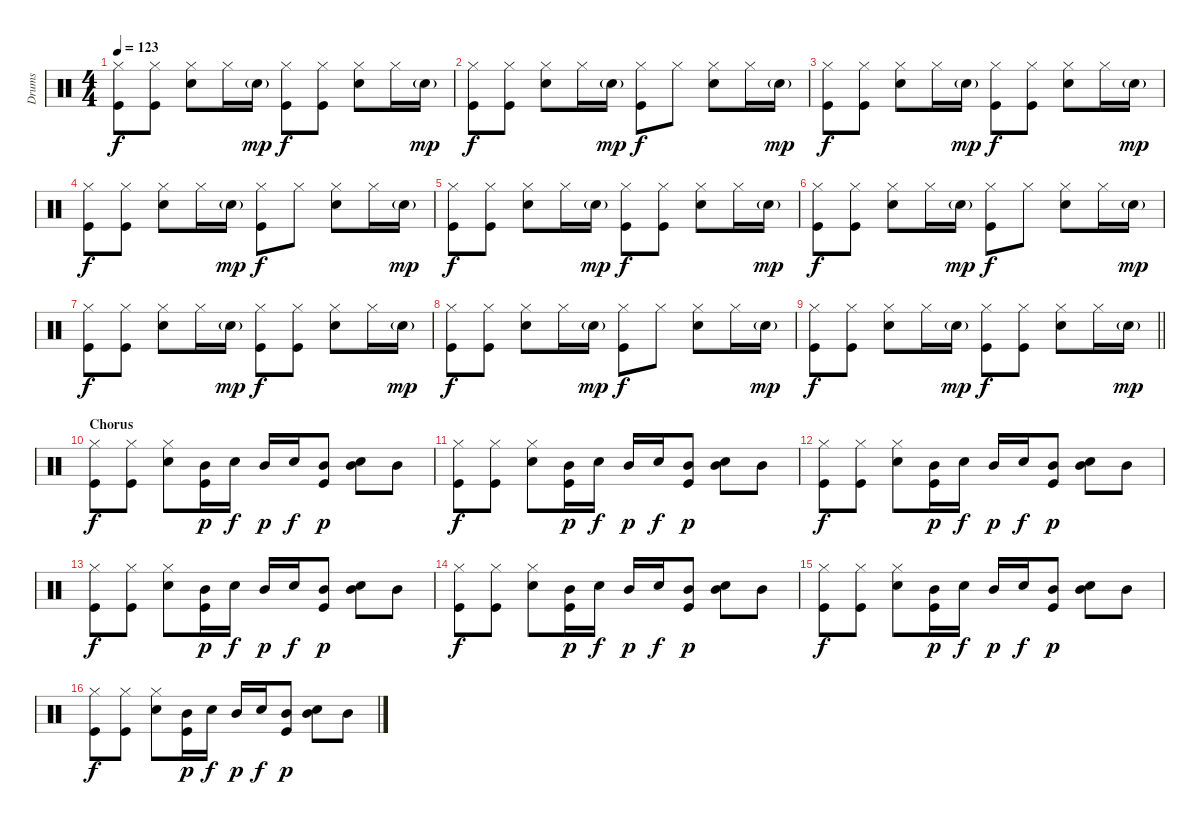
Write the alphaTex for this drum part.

\track ("Drums" "Drums") {instrument percussion}
\staff {score}
\articulation defaults
\ts (4 4)
\tempo 123
\clef neutral
\ks c
("Hi-Hat (closed)" "Kick (hit)").8{dy f} ("Hi-Hat (closed)" "Kick (hit)").8 ("Hi-Hat (closed)" "Snare (hit) 2").8 "Hi-Hat (closed)".16 "Snare (hit) 2"{g}.16{dy mp} ("Hi-Hat (closed)" "Kick (hit)").8{dy f} ("Hi-Hat (closed)" "Kick (hit)").8 ("Hi-Hat (closed)" "Snare (hit) 2").8 "Hi-Hat (closed)".16 "Snare (hit) 2"{g}.16{dy mp} |
("Hi-Hat (closed)" "Kick (hit)").8{dy f} ("Hi-Hat (closed)" "Kick (hit)").8 ("Hi-Hat (closed)" "Snare (hit) 2").8 "Hi-Hat (closed)".16 "Snare (hit) 2"{g}.16{dy mp} ("Hi-Hat (closed)" "Kick (hit)").8{dy f} "Hi-Hat (closed)".8 ("Hi-Hat (closed)" "Snare (hit) 2").8 "Hi-Hat (closed)".16 "Snare (hit) 2"{g}.16{dy mp} |
("Hi-Hat (closed)" "Kick (hit)").8{dy f} ("Hi-Hat (closed)" "Kick (hit)").8 ("Hi-Hat (closed)" "Snare (hit) 2").8 "Hi-Hat (closed)".16 "Snare (hit) 2"{g}.16{dy mp} ("Hi-Hat (closed)" "Kick (hit)").8{dy f} ("Hi-Hat (closed)" "Kick (hit)").8 ("Hi-Hat (closed)" "Snare (hit) 2").8 "Hi-Hat (closed)".16 "Snare (hit) 2"{g}.16{dy mp} |
("Hi-Hat (closed)" "Kick (hit)").8{dy f} ("Hi-Hat (closed)" "Kick (hit)").8 ("Hi-Hat (closed)" "Snare (hit) 2").8 "Hi-Hat (closed)".16 "Snare (hit) 2"{g}.16{dy mp} ("Hi-Hat (closed)" "Kick (hit)").8{dy f} "Hi-Hat (closed)".8 ("Hi-Hat (closed)" "Snare (hit) 2").8 "Hi-Hat (closed)".16 "Snare (hit) 2"{g}.16{dy mp} |
("Hi-Hat (closed)" "Kick (hit)").8{dy f} ("Hi-Hat (closed)" "Kick (hit)").8 ("Hi-Hat (closed)" "Snare (hit) 2").8 "Hi-Hat (closed)".16 "Snare (hit) 2"{g}.16{dy mp} ("Hi-Hat (closed)" "Kick (hit)").8{dy f} ("Hi-Hat (closed)" "Kick (hit)").8 ("Hi-Hat (closed)" "Snare (hit) 2").8 "Hi-Hat (closed)".16 "Snare (hit) 2"{g}.16{dy mp} |
("Hi-Hat (closed)" "Kick (hit)").8{dy f} ("Hi-Hat (closed)" "Kick (hit)").8 ("Hi-Hat (closed)" "Snare (hit) 2").8 "Hi-Hat (closed)".16 "Snare (hit) 2"{g}.16{dy mp} ("Hi-Hat (closed)" "Kick (hit)").8{dy f} "Hi-Hat (closed)".8 ("Hi-Hat (closed)" "Snare (hit) 2").8 "Hi-Hat (closed)".16 "Snare (hit) 2"{g}.16{dy mp} |
("Hi-Hat (closed)" "Kick (hit)").8{dy f} ("Hi-Hat (closed)" "Kick (hit)").8 ("Hi-Hat (closed)" "Snare (hit) 2").8 "Hi-Hat (closed)".16 "Snare (hit) 2"{g}.16{dy mp} ("Hi-Hat (closed)" "Kick (hit)").8{dy f} ("Hi-Hat (closed)" "Kick (hit)").8 ("Hi-Hat (closed)" "Snare (hit) 2").8 "Hi-Hat (closed)".16 "Snare (hit) 2"{g}.16{dy mp} |
("Hi-Hat (closed)" "Kick (hit)").8{dy f} ("Hi-Hat (closed)" "Kick (hit)").8 ("Hi-Hat (closed)" "Snare (hit) 2").8 "Hi-Hat (closed)".16 "Snare (hit) 2"{g}.16{dy mp} ("Hi-Hat (closed)" "Kick (hit)").8{dy f} "Hi-Hat (closed)".8 ("Hi-Hat (closed)" "Snare (hit) 2").8 "Hi-Hat (closed)".16 "Snare (hit) 2"{g}.16{dy mp} |
\barLineRight lightlight
("Hi-Hat (closed)" "Kick (hit)").8{dy f} ("Hi-Hat (closed)" "Kick (hit)").8 ("Hi-Hat (closed)" "Snare (hit) 2").8 "Hi-Hat (closed)".16 "Snare (hit) 2"{g}.16{dy mp} ("Hi-Hat (closed)" "Kick (hit)").8{dy f} ("Hi-Hat (closed)" "Kick (hit)").8 ("Hi-Hat (closed)" "Snare (hit) 2").8 "Hi-Hat (closed)".16 "Snare (hit) 2"{g}.16{dy mp} |
\section ("" "Chorus")
("Hi-Hat (closed)" "Kick (hit)").8{dy f} ("Hi-Hat (closed)" "Kick (hit)").8 ("Hi-Hat (closed)" "Snare (hit) 2").8 ("Mid Tom (hit)" "Kick (hit)").16{dy p} "Snare (hit) 2".16{dy f} "Mid Tom (hit)".16{dy p} "Snare (hit) 2".16{dy f} ("Mid Tom (hit)" "Kick (hit)").8{dy p} ("Snare (hit) 2" "Mid Tom (hit)").8 "Mid Tom (hit)".8 |
("Hi-Hat (closed)" "Kick (hit)").8{dy f} ("Hi-Hat (closed)" "Kick (hit)").8 ("Hi-Hat (closed)" "Snare (hit) 2").8 ("Mid Tom (hit)" "Kick (hit)").16{dy p} "Snare (hit) 2".16{dy f} "Mid Tom (hit)".16{dy p} "Snare (hit) 2".16{dy f} ("Mid Tom (hit)" "Kick (hit)").8{dy p} ("Snare (hit) 2" "Mid Tom (hit)").8 "Mid Tom (hit)".8 |
("Hi-Hat (closed)" "Kick (hit)").8{dy f} ("Hi-Hat (closed)" "Kick (hit)").8 ("Hi-Hat (closed)" "Snare (hit) 2").8 ("Mid Tom (hit)" "Kick (hit)").16{dy p} "Snare (hit) 2".16{dy f} "Mid Tom (hit)".16{dy p} "Snare (hit) 2".16{dy f} ("Mid Tom (hit)" "Kick (hit)").8{dy p} ("Snare (hit) 2" "Mid Tom (hit)").8 "Mid Tom (hit)".8 |
("Hi-Hat (closed)" "Kick (hit)").8{dy f} ("Hi-Hat (closed)" "Kick (hit)").8 ("Hi-Hat (closed)" "Snare (hit) 2").8 ("Mid Tom (hit)" "Kick (hit)").16{dy p} "Snare (hit) 2".16{dy f} "Mid Tom (hit)".16{dy p} "Snare (hit) 2".16{dy f} ("Mid Tom (hit)" "Kick (hit)").8{dy p} ("Snare (hit) 2" "Mid Tom (hit)").8 "Mid Tom (hit)".8 |
("Hi-Hat (closed)" "Kick (hit)").8{dy f} ("Hi-Hat (closed)" "Kick (hit)").8 ("Hi-Hat (closed)" "Snare (hit) 2").8 ("Mid Tom (hit)" "Kick (hit)").16{dy p} "Snare (hit) 2".16{dy f} "Mid Tom (hit)".16{dy p} "Snare (hit) 2".16{dy f} ("Mid Tom (hit)" "Kick (hit)").8{dy p} ("Snare (hit) 2" "Mid Tom (hit)").8 "Mid Tom (hit)".8 |
("Hi-Hat (closed)" "Kick (hit)").8{dy f} ("Hi-Hat (closed)" "Kick (hit)").8 ("Hi-Hat (closed)" "Snare (hit) 2").8 ("Mid Tom (hit)" "Kick (hit)").16{dy p} "Snare (hit) 2".16{dy f} "Mid Tom (hit)".16{dy p} "Snare (hit) 2".16{dy f} ("Mid Tom (hit)" "Kick (hit)").8{dy p} ("Snare (hit) 2" "Mid Tom (hit)").8 "Mid Tom (hit)".8 |
("Hi-Hat (closed)" "Kick (hit)").8{dy f} ("Hi-Hat (closed)" "Kick (hit)").8 ("Hi-Hat (closed)" "Snare (hit) 2").8 ("Mid Tom (hit)" "Kick (hit)").16{dy p} "Snare (hit) 2".16{dy f} "Mid Tom (hit)".16{dy p} "Snare (hit) 2".16{dy f} ("Mid Tom (hit)" "Kick (hit)").8{dy p} ("Snare (hit) 2" "Mid Tom (hit)").8 "Mid Tom (hit)".8
